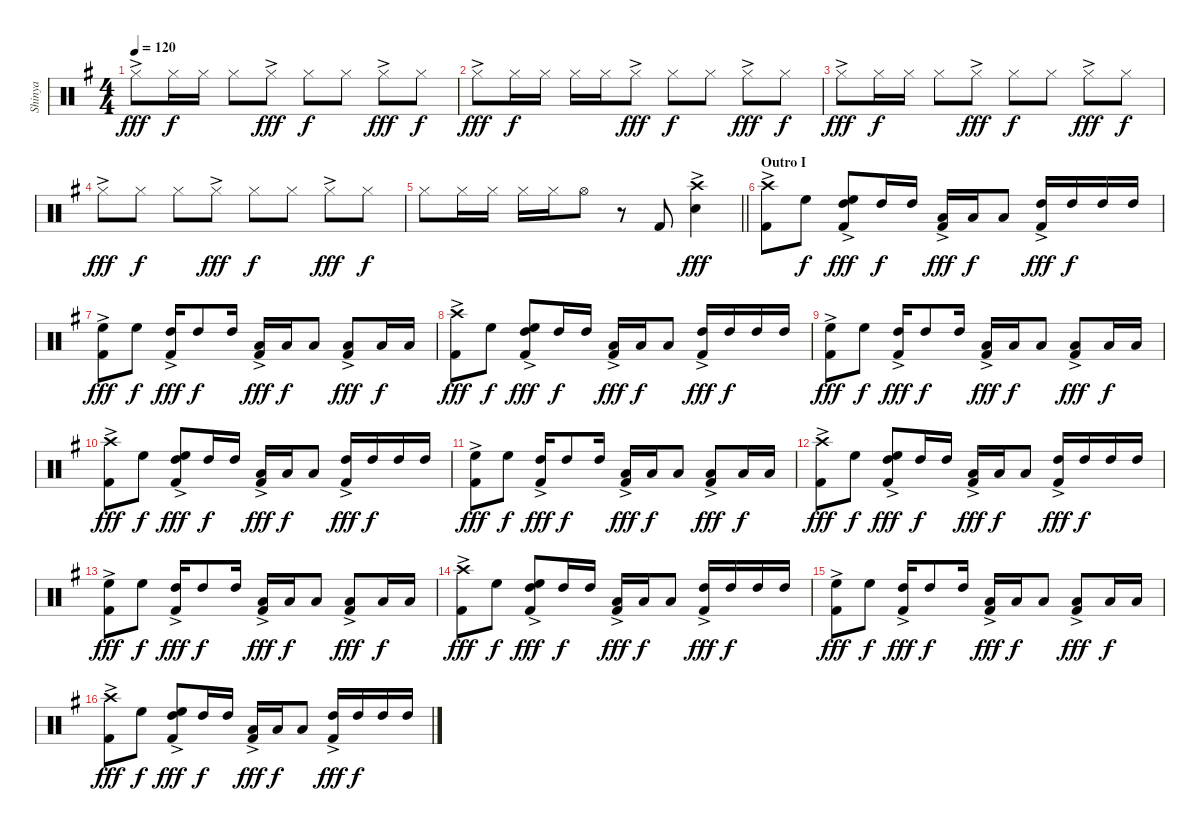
\track ("Shinya" "Shinya") {instrument percussion}
\staff {score}
\articulation defaults
\ts (4 4)
\tempo 120
\clef neutral
\ks g "Hi-Hat (closed)"{ac}.8{dy fff} "Hi-Hat (closed)".16{dy f} "Hi-Hat (closed)".16 "Hi-Hat (closed)".8 "Hi-Hat (closed)"{ac}.8{dy fff} "Hi-Hat (closed)".8{dy f} "Hi-Hat (closed)".8 "Hi-Hat (closed)"{ac}.8{dy fff} "Hi-Hat (closed)".8{dy f}
|
"Hi-Hat (closed)"{ac}.8{dy fff} "Hi-Hat (closed)".16{dy f} "Hi-Hat (closed)".16 "Hi-Hat (closed)".16 "Hi-Hat (closed)".16 "Hi-Hat (closed)"{ac}.8{dy fff} "Hi-Hat (closed)".8{dy f} "Hi-Hat (closed)".8 "Hi-Hat (closed)"{ac}.8{dy fff} "Hi-Hat (closed)".8{dy f} |
"Hi-Hat (closed)"{ac}.8{dy fff} "Hi-Hat (closed)".16{dy f} "Hi-Hat (closed)".16 "Hi-Hat (closed)".8 "Hi-Hat (closed)"{ac}.8{dy fff} "Hi-Hat (closed)".8{dy f} "Hi-Hat (closed)".8 "Hi-Hat (closed)"{ac}.8{dy fff} "Hi-Hat (closed)".8{dy f} |
"Hi-Hat (closed)"{ac}.8{dy fff} "Hi-Hat (closed)".8{dy f} "Hi-Hat (closed)".8 "Hi-Hat (closed)"{ac}.8{dy fff} "Hi-Hat (closed)".8{dy f} "Hi-Hat (closed)".8 "Hi-Hat (closed)"{ac}.8{dy fff} "Hi-Hat (closed)".8{dy f} |
\barLineRight lightlight "Hi-Hat (closed)".8 "Hi-Hat (closed)".16 "Hi-Hat (closed)".16 "Hi-Hat (closed)".16 "Hi-Hat (closed)".16 "Hi-Hat (open)".8
r.8 "Kick (hit) 2".8 ("Crash high (hit)"{ac} "Snare (hit) 2").4{dy fff} |
\section ("" "Outro I")
("Crash high (hit)"{ac} "Kick (hit) 2"{ac}).8 "High Floor Tom (hit)".8{dy f} ("High Floor Tom (hit)" "High Tom (hit)" "Kick (hit) 2"{ac}).8{dy fff} "High Tom (hit)".16{dy f} "High Tom (hit)".16 ("Low Tom (hit)" "Kick (hit) 2"{ac}).16{dy fff} "Low Tom (hit)".16{dy f} "Low Tom (hit)".8 ("High Tom (hit)" "Kick (hit) 2"{ac}).16{dy fff} "High Tom (hit)".16{dy f} "High Tom (hit)".16 "High Tom (hit)".16 |
("High Floor Tom (hit)" "Kick (hit) 2"{ac}).8{dy fff} "High Floor Tom (hit)".8{dy f} ("High Tom (hit)" "Kick (hit) 2"{ac}).16{dy fff} "High Tom (hit)".8{dy f} "High Tom (hit)".16 ("Low Tom (hit)" "Kick (hit) 2"{ac}).16{dy fff} "Low Tom (hit)".16{dy f} "Low Tom (hit)".8 ("Low Floor Tom (hit)" "Kick (hit) 2"{ac}).8{dy fff} "Low Floor Tom (hit)".16{dy f} "Low Floor Tom (hit)".16 |
("Crash high (hit)"{ac} "Kick (hit) 2"{ac}).8{dy fff} "High Floor Tom (hit)".8{dy f} ("High Floor Tom (hit)" "High Tom (hit)" "Kick (hit) 2"{ac}).8{dy fff} "High Tom (hit)".16{dy f} "High Tom (hit)".16 ("Low Tom (hit)" "Kick (hit) 2"{ac}).16{dy fff} "Low Tom (hit)".16{dy f} "Low Tom (hit)".8 ("High Tom (hit)" "Kick (hit) 2"{ac}).16{dy fff} "High Tom (hit)".16{dy f} "High Tom (hit)".16 "High Tom (hit)".16 |
("High Floor Tom (hit)" "Kick (hit) 2"{ac}).8{dy fff} "High Floor Tom (hit)".8{dy f} ("High Tom (hit)" "Kick (hit) 2"{ac}).16{dy fff} "High Tom (hit)".8{dy f} "High Tom (hit)".16 ("Low Tom (hit)" "Kick (hit) 2"{ac}).16{dy fff} "Low Tom (hit)".16{dy f} "Low Tom (hit)".8 ("Low Floor Tom (hit)" "Kick (hit) 2"{ac}).8{dy fff} "Low Floor Tom (hit)".16{dy f} "Low Floor Tom (hit)".16 |
("Crash high (hit)"{ac} "Kick (hit) 2"{ac}).8{dy fff} "High Floor Tom (hit)".8{dy f} ("High Floor Tom (hit)" "High Tom (hit)" "Kick (hit) 2"{ac}).8{dy fff} "High Tom (hit)".16{dy f} "High Tom (hit)".16 ("Low Tom (hit)" "Kick (hit) 2"{ac}).16{dy fff} "Low Tom (hit)".16{dy f} "Low Tom (hit)".8 ("High Tom (hit)" "Kick (hit) 2"{ac}).16{dy fff} "High Tom (hit)".16{dy f} "High Tom (hit)".16 "High Tom (hit)".16 |
("High Floor Tom (hit)" "Kick (hit) 2"{ac}).8{dy fff} "High Floor Tom (hit)".8{dy f} ("High Tom (hit)" "Kick (hit) 2"{ac}).16{dy fff} "High Tom (hit)".8{dy f} "High Tom (hit)".16 ("Low Tom (hit)" "Kick (hit) 2"{ac}).16{dy fff} "Low Tom (hit)".16{dy f} "Low Tom (hit)".8 ("Low Floor Tom (hit)" "Kick (hit) 2"{ac}).8{dy fff} "Low Floor Tom (hit)".16{dy f} "Low Floor Tom (hit)".16 |
("Crash high (hit)"{ac} "Kick (hit) 2"{ac}).8{dy fff} "High Floor Tom (hit)".8{dy f} ("High Floor Tom (hit)" "High Tom (hit)" "Kick (hit) 2"{ac}).8{dy fff} "High Tom (hit)".16{dy f} "High Tom (hit)".16 ("Low Tom (hit)" "Kick (hit) 2"{ac}).16{dy fff} "Low Tom (hit)".16{dy f} "Low Tom (hit)".8 ("High Tom (hit)" "Kick (hit) 2"{ac}).16{dy fff} "High Tom (hit)".16{dy f} "High Tom (hit)".16 "High Tom (hit)".16 |
("High Floor Tom (hit)" "Kick (hit) 2"{ac}).8{dy fff} "High Floor Tom (hit)".8{dy f} ("High Tom (hit)" "Kick (hit) 2"{ac}).16{dy fff} "High Tom (hit)".8{dy f} "High Tom (hit)".16 ("Low Tom (hit)" "Kick (hit) 2"{ac}).16{dy fff} "Low Tom (hit)".16{dy f} "Low Tom (hit)".8 ("Low Floor Tom (hit)" "Kick (hit) 2"{ac}).8{dy fff} "Low Floor Tom (hit)".16{dy f} "Low Floor Tom (hit)".16 |
("Crash high (hit)"{ac} "Kick (hit) 2"{ac}).8{dy fff} "High Floor Tom (hit)".8{dy f} ("High Floor Tom (hit)" "High Tom (hit)" "Kick (hit) 2"{ac}).8{dy fff} "High Tom (hit)".16{dy f} "High Tom (hit)".16 ("Low Tom (hit)" "Kick (hit) 2"{ac}).16{dy fff} "Low Tom (hit)".16{dy f} "Low Tom (hit)".8 ("High Tom (hit)" "Kick (hit) 2"{ac}).16{dy fff} "High Tom (hit)".16{dy f} "High Tom (hit)".16 "High Tom (hit)".16 |
("High Floor Tom (hit)" "Kick (hit) 2"{ac}).8{dy fff} "High Floor Tom (hit)".8{dy f} ("High Tom (hit)" "Kick (hit) 2"{ac}).16{dy fff} "High Tom (hit)".8{dy f} "High Tom (hit)".16 ("Low Tom (hit)" "Kick (hit) 2"{ac}).16{dy fff} "Low Tom (hit)".16{dy f} "Low Tom (hit)".8 ("Low Floor Tom (hit)" "Kick (hit) 2"{ac}).8{dy fff} "Low Floor Tom (hit)".16{dy f} "Low Floor Tom (hit)".16 |
("Crash high (hit)"{ac} "Kick (hit) 2"{ac}).8{dy fff} "High Floor Tom (hit)".8{dy f} ("High Floor Tom (hit)" "High Tom (hit)" "Kick (hit) 2"{ac}).8{dy fff} "High Tom (hit)".16{dy f} "High Tom (hit)".16 ("Low Tom (hit)" "Kick (hit) 2"{ac}).16{dy fff} "Low Tom (hit)".16{dy f} "Low Tom (hit)".8 ("High Tom (hit)" "Kick (hit) 2"{ac}).16{dy fff} "High Tom (hit)".16{dy f} "High Tom (hit)".16 "High Tom (hit)".16
